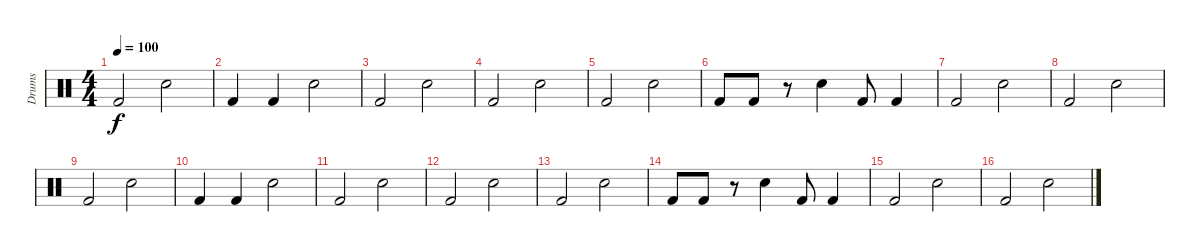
\track ("Drums" "Drums") {instrument percussion}
\staff {score}
\articulation defaults
\ts (4 4)
\tempo 100
\clef neutral
\ks c "Kick (hit) 2".2{dy f} "Snare (hit) 2".2
|
"Kick (hit) 2".4 "Kick (hit) 2".4 "Snare (hit) 2".2 |
"Kick (hit) 2".2 "Snare (hit) 2".2 |
"Kick (hit) 2".2 "Snare (hit) 2".2 |
"Kick (hit) 2".2 "Snare (hit) 2".2 |
"Kick (hit) 2".8 "Kick (hit) 2".8 r.8 "Snare (hit) 2".4 "Kick (hit) 2".8 "Kick (hit) 2".4 |
"Kick (hit) 2".2 "Snare (hit) 2".2 |
"Kick (hit) 2".2 "Snare (hit) 2".2 |
"Kick (hit) 2".2 "Snare (hit) 2".2 |
"Kick (hit) 2".4 "Kick (hit) 2".4 "Snare (hit) 2".2 |
"Kick (hit) 2".2 "Snare (hit) 2".2 |
"Kick (hit) 2".2 "Snare (hit) 2".2 |
"Kick (hit) 2".2 "Snare (hit) 2".2 |
"Kick (hit) 2".8 "Kick (hit) 2".8 r.8 "Snare (hit) 2".4 "Kick (hit) 2".8 "Kick (hit) 2".4 |
"Kick (hit) 2".2 "Snare (hit) 2".2 |
"Kick (hit) 2".2 "Snare (hit) 2".2
